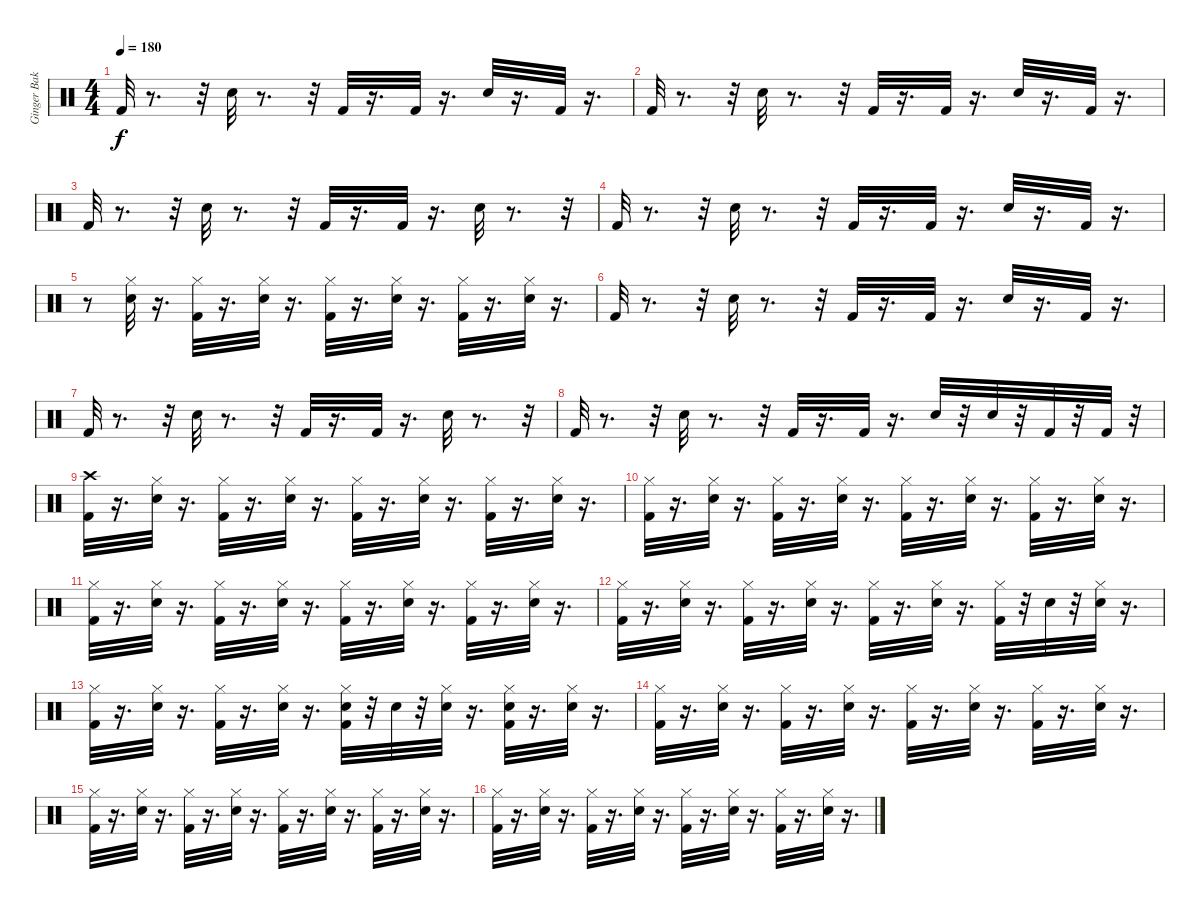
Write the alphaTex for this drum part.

\track ("Ginger Baker" "Ginger Bak") {instrument percussion}
\staff {score}
\articulation defaults
\ts (4 4)
\tempo 180
\clef neutral
\ks c "Kick (hit) 2".32{dy f}
r.8{d} r.32 "Snare (hit) 2".32 r.8{d} r.32 "Kick (hit) 2".32 r.16{d} "Kick (hit) 2".32 r.16{d} "Snare (hit) 2".32 r.16{d} "Kick (hit) 2".32 r.16{d} |
"Kick (hit) 2".32 r.8{d} r.32 "Snare (hit) 2".32 r.8{d} r.32 "Kick (hit) 2".32 r.16{d} "Kick (hit) 2".32 r.16{d} "Snare (hit) 2".32 r.16{d} "Kick (hit) 2".32 r.16{d} |
"Kick (hit) 2".32 r.8{d} r.32 "Snare (hit) 2".32 r.8{d} r.32 "Kick (hit) 2".32 r.16{d} "Kick (hit) 2".32 r.16{d} "Snare (hit) 2".32 r.8{d} r.32 |
"Kick (hit) 2".32 r.8{d} r.32 "Snare (hit) 2".32 r.8{d} r.32 "Kick (hit) 2".32 r.16{d} "Kick (hit) 2".32 r.16{d} "Snare (hit) 2".32 r.16{d} "Kick (hit) 2".32 r.16{d} |
r.8 ("Hi-Hat (closed)" "Snare (hit) 2").32 r.16{d} ("Hi-Hat (closed)" "Kick (hit) 2").32 r.16{d} ("Hi-Hat (closed)" "Snare (hit) 2").32 r.16{d} ("Hi-Hat (closed)" "Kick (hit) 2").32 r.16{d} ("Hi-Hat (closed)" "Snare (hit) 2").32 r.16{d} ("Hi-Hat (closed)" "Kick (hit) 2").32 r.16{d} ("Snare (hit) 2" "Hi-Hat (closed)").32 r.16{d} |
"Kick (hit) 2".32 r.8{d} r.32 "Snare (hit) 2".32 r.8{d} r.32 "Kick (hit) 2".32 r.16{d} "Kick (hit) 2".32 r.16{d} "Snare (hit) 2".32 r.16{d} "Kick (hit) 2".32 r.16{d} |
"Kick (hit) 2".32 r.8{d} r.32 "Snare (hit) 2".32 r.8{d} r.32 "Kick (hit) 2".32 r.16{d} "Kick (hit) 2".32 r.16{d} "Snare (hit) 2".32 r.8{d} r.32 |
"Kick (hit) 2".32 r.8{d} r.32 "Snare (hit) 2".32 r.8{d} r.32 "Kick (hit) 2".32 r.16{d} "Kick (hit) 2".32 r.16{d} "Snare (hit) 2".32 r.32 "Snare (hit) 2".32 r.32 "Kick (hit) 2".32 r.32 "Kick (hit) 2".32 r.32 |
("Crash high (hit)" "Kick (hit) 2").32 r.16{d} ("Snare (hit) 2" "Hi-Hat (closed)").32 r.16{d} ("Kick (hit) 2" "Hi-Hat (closed)").32 r.16{d} ("Snare (hit) 2" "Hi-Hat (closed)").32 r.16{d} ("Hi-Hat (closed)" "Kick (hit) 2").32 r.16{d} ("Hi-Hat (closed)" "Snare (hit) 2").32 r.16{d} ("Kick (hit) 2" "Hi-Hat (closed)").32 r.16{d} ("Hi-Hat (closed)" "Snare (hit) 2").32 r.16{d} |
("Hi-Hat (closed)" "Kick (hit) 2").32 r.16{d} ("Hi-Hat (closed)" "Snare (hit) 2").32 r.16{d} ("Hi-Hat (closed)" "Kick (hit) 2").32 r.16{d} ("Hi-Hat (closed)" "Snare (hit) 2").32 r.16{d} ("Hi-Hat (closed)" "Kick (hit) 2").32 r.16{d} ("Hi-Hat (closed)" "Snare (hit) 2").32 r.16{d} ("Hi-Hat (closed)" "Kick (hit) 2").32 r.16{d} ("Snare (hit) 2" "Hi-Hat (closed)").32 r.16{d} |
("Hi-Hat (closed)" "Kick (hit) 2").32 r.16{d} ("Hi-Hat (closed)" "Snare (hit) 2").32 r.16{d} ("Hi-Hat (closed)" "Kick (hit) 2").32 r.16{d} ("Hi-Hat (closed)" "Snare (hit) 2").32 r.16{d} ("Hi-Hat (closed)" "Kick (hit) 2").32 r.16{d} ("Hi-Hat (closed)" "Snare (hit) 2").32 r.16{d} ("Hi-Hat (closed)" "Kick (hit) 2").32 r.16{d} ("Snare (hit) 2" "Hi-Hat (closed)").32 r.16{d} |
("Hi-Hat (closed)" "Kick (hit) 2").32 r.16{d} ("Hi-Hat (closed)" "Snare (hit) 2").32 r.16{d} ("Hi-Hat (closed)" "Kick (hit) 2").32 r.16{d} ("Hi-Hat (closed)" "Snare (hit) 2").32 r.16{d} ("Hi-Hat (closed)" "Kick (hit) 2").32 r.16{d} ("Hi-Hat (closed)" "Snare (hit) 2").32 r.16{d} ("Hi-Hat (closed)" "Kick (hit) 2").32 r.32 "Snare (hit) 2".32 r.32 ("Snare (hit) 2" "Hi-Hat (closed)").32 r.16{d} |
("Hi-Hat (closed)" "Kick (hit) 2").32 r.16{d} ("Hi-Hat (closed)" "Snare (hit) 2").32 r.16{d} ("Hi-Hat (closed)" "Kick (hit) 2").32 r.16{d} ("Hi-Hat (closed)" "Snare (hit) 2").32 r.16{d} ("Snare (hit) 2" "Hi-Hat (closed)" "Kick (hit) 2").32 r.32 "Snare (hit) 2".32 r.32 ("Hi-Hat (closed)" "Snare (hit) 2").32 r.16{d} ("Snare (hit) 2" "Hi-Hat (closed)" "Kick (hit) 2").32 r.16{d} ("Snare (hit) 2" "Hi-Hat (closed)").32 r.16{d} |
("Hi-Hat (closed)" "Kick (hit) 2").32 r.16{d} ("Hi-Hat (closed)" "Snare (hit) 2").32 r.16{d} ("Hi-Hat (closed)" "Kick (hit) 2").32 r.16{d} ("Hi-Hat (closed)" "Snare (hit) 2").32 r.16{d} ("Hi-Hat (closed)" "Kick (hit) 2").32 r.16{d} ("Hi-Hat (closed)" "Snare (hit) 2").32 r.16{d} ("Hi-Hat (closed)" "Kick (hit) 2").32 r.16{d} ("Snare (hit) 2" "Hi-Hat (closed)").32 r.16{d} |
("Hi-Hat (closed)" "Kick (hit) 2").32 r.16{d} ("Hi-Hat (closed)" "Snare (hit) 2").32 r.16{d} ("Hi-Hat (closed)" "Kick (hit) 2").32 r.16{d} ("Hi-Hat (closed)" "Snare (hit) 2").32 r.16{d} ("Hi-Hat (closed)" "Kick (hit) 2").32 r.16{d} ("Hi-Hat (closed)" "Snare (hit) 2").32 r.16{d} ("Hi-Hat (closed)" "Kick (hit) 2").32 r.16{d} ("Snare (hit) 2" "Hi-Hat (closed)").32 r.16{d} |
("Hi-Hat (closed)" "Kick (hit) 2").32 r.16{d} ("Hi-Hat (closed)" "Snare (hit) 2").32 r.16{d} ("Hi-Hat (closed)" "Kick (hit) 2").32 r.16{d} ("Hi-Hat (closed)" "Snare (hit) 2").32 r.16{d} ("Hi-Hat (closed)" "Kick (hit) 2").32 r.16{d} ("Hi-Hat (closed)" "Snare (hit) 2").32 r.16{d} ("Hi-Hat (closed)" "Kick (hit) 2").32 r.16{d} ("Snare (hit) 2" "Hi-Hat (closed)").32 r.16{d}
